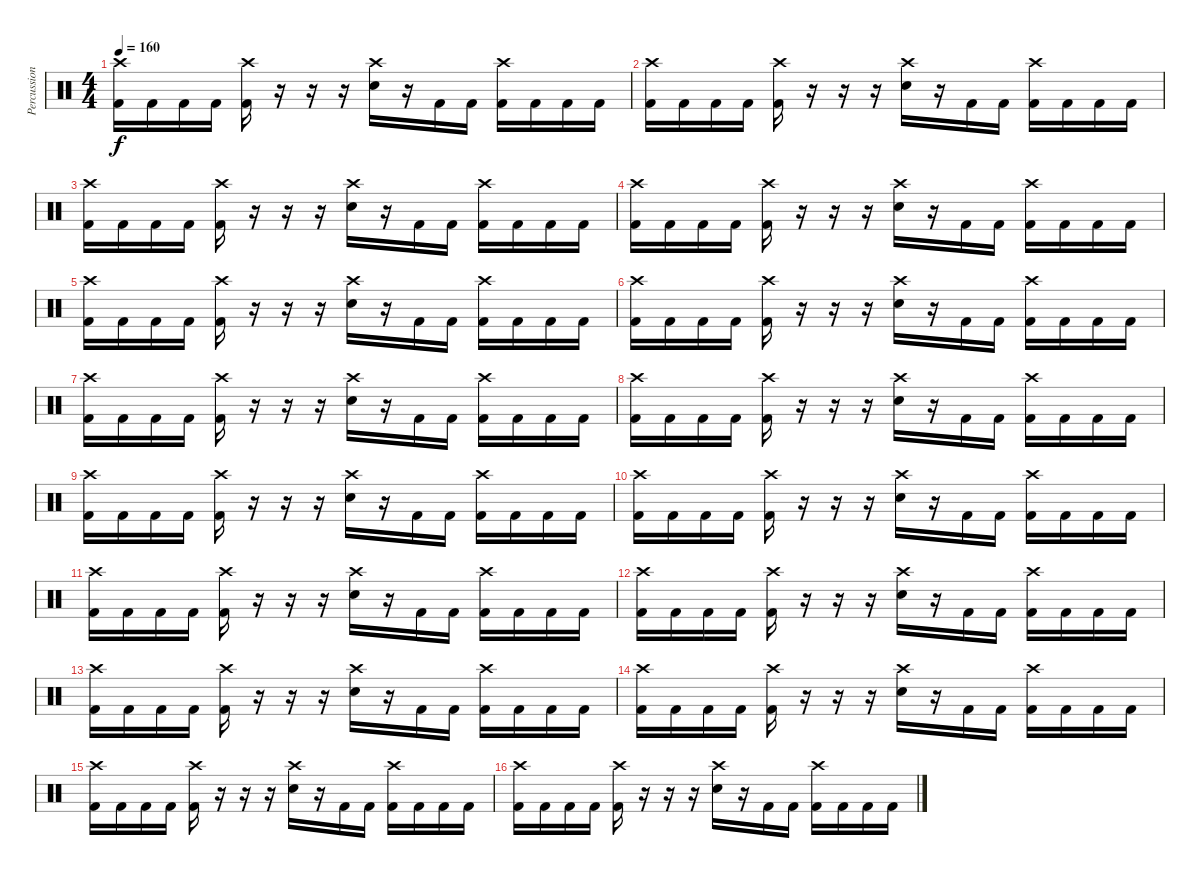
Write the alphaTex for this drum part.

\track ("Percussion" "Percussion") {instrument percussion}
\staff {score}
\articulation defaults
\ts (4 4)
\tempo 160
\clef neutral
\ks c
("Crash high (hit)" "Kick (hit) 2").16{dy f} "Kick (hit) 2".16 "Kick (hit) 2".16 "Kick (hit) 2".16 ("Crash high (hit)" "Kick (hit) 2").16 r.16 r.16 r.16 ("Crash high (hit)" "Electric Snare (hit)").16 r.16 "Kick (hit) 2".16 "Kick (hit) 2".16 ("Crash high (hit)" "Kick (hit) 2").16 "Kick (hit) 2".16 "Kick (hit) 2".16 "Kick (hit) 2".16 |
("Crash high (hit)" "Kick (hit) 2").16 "Kick (hit) 2".16 "Kick (hit) 2".16 "Kick (hit) 2".16 ("Crash high (hit)" "Kick (hit) 2").16 r.16 r.16 r.16 ("Crash high (hit)" "Electric Snare (hit)").16 r.16 "Kick (hit) 2".16 "Kick (hit) 2".16 ("Crash high (hit)" "Kick (hit) 2").16 "Kick (hit) 2".16 "Kick (hit) 2".16 "Kick (hit) 2".16 |
("Crash high (hit)" "Kick (hit) 2").16 "Kick (hit) 2".16 "Kick (hit) 2".16 "Kick (hit) 2".16 ("Crash high (hit)" "Kick (hit) 2").16 r.16 r.16 r.16 ("Crash high (hit)" "Electric Snare (hit)").16 r.16 "Kick (hit) 2".16 "Kick (hit) 2".16 ("Crash high (hit)" "Kick (hit) 2").16 "Kick (hit) 2".16 "Kick (hit) 2".16 "Kick (hit) 2".16 |
("Crash high (hit)" "Kick (hit) 2").16 "Kick (hit) 2".16 "Kick (hit) 2".16 "Kick (hit) 2".16 ("Crash high (hit)" "Kick (hit) 2").16 r.16 r.16 r.16 ("Crash high (hit)" "Electric Snare (hit)").16 r.16 "Kick (hit) 2".16 "Kick (hit) 2".16 ("Crash high (hit)" "Kick (hit) 2").16 "Kick (hit) 2".16 "Kick (hit) 2".16 "Kick (hit) 2".16 |
("Crash high (hit)" "Kick (hit) 2").16 "Kick (hit) 2".16 "Kick (hit) 2".16 "Kick (hit) 2".16 ("Crash high (hit)" "Kick (hit) 2").16 r.16 r.16 r.16 ("Crash high (hit)" "Electric Snare (hit)").16 r.16 "Kick (hit) 2".16 "Kick (hit) 2".16 ("Crash high (hit)" "Kick (hit) 2").16 "Kick (hit) 2".16 "Kick (hit) 2".16 "Kick (hit) 2".16 |
("Crash high (hit)" "Kick (hit) 2").16 "Kick (hit) 2".16 "Kick (hit) 2".16 "Kick (hit) 2".16 ("Crash high (hit)" "Kick (hit) 2").16 r.16 r.16 r.16 ("Crash high (hit)" "Electric Snare (hit)").16 r.16 "Kick (hit) 2".16 "Kick (hit) 2".16 ("Crash high (hit)" "Kick (hit) 2").16 "Kick (hit) 2".16 "Kick (hit) 2".16 "Kick (hit) 2".16 |
("Crash high (hit)" "Kick (hit) 2").16 "Kick (hit) 2".16 "Kick (hit) 2".16 "Kick (hit) 2".16 ("Crash high (hit)" "Kick (hit) 2").16 r.16 r.16 r.16 ("Crash high (hit)" "Electric Snare (hit)").16 r.16 "Kick (hit) 2".16 "Kick (hit) 2".16 ("Crash high (hit)" "Kick (hit) 2").16 "Kick (hit) 2".16 "Kick (hit) 2".16 "Kick (hit) 2".16 |
("Crash high (hit)" "Kick (hit) 2").16 "Kick (hit) 2".16 "Kick (hit) 2".16 "Kick (hit) 2".16 ("Crash high (hit)" "Kick (hit) 2").16 r.16 r.16 r.16 ("Crash high (hit)" "Electric Snare (hit)").16 r.16 "Kick (hit) 2".16 "Kick (hit) 2".16 ("Crash high (hit)" "Kick (hit) 2").16 "Kick (hit) 2".16 "Kick (hit) 2".16 "Kick (hit) 2".16 |
("Crash high (hit)" "Kick (hit) 2").16 "Kick (hit) 2".16 "Kick (hit) 2".16 "Kick (hit) 2".16 ("Crash high (hit)" "Kick (hit) 2").16 r.16 r.16 r.16 ("Crash high (hit)" "Electric Snare (hit)").16 r.16 "Kick (hit) 2".16 "Kick (hit) 2".16 ("Crash high (hit)" "Kick (hit) 2").16 "Kick (hit) 2".16 "Kick (hit) 2".16 "Kick (hit) 2".16 |
("Crash high (hit)" "Kick (hit) 2").16 "Kick (hit) 2".16 "Kick (hit) 2".16 "Kick (hit) 2".16 ("Crash high (hit)" "Kick (hit) 2").16 r.16 r.16 r.16 ("Crash high (hit)" "Electric Snare (hit)").16 r.16 "Kick (hit) 2".16 "Kick (hit) 2".16 ("Crash high (hit)" "Kick (hit) 2").16 "Kick (hit) 2".16 "Kick (hit) 2".16 "Kick (hit) 2".16 |
("Crash high (hit)" "Kick (hit) 2").16 "Kick (hit) 2".16 "Kick (hit) 2".16 "Kick (hit) 2".16 ("Crash high (hit)" "Kick (hit) 2").16 r.16 r.16 r.16 ("Crash high (hit)" "Electric Snare (hit)").16 r.16 "Kick (hit) 2".16 "Kick (hit) 2".16 ("Crash high (hit)" "Kick (hit) 2").16 "Kick (hit) 2".16 "Kick (hit) 2".16 "Kick (hit) 2".16 |
("Crash high (hit)" "Kick (hit) 2").16 "Kick (hit) 2".16 "Kick (hit) 2".16 "Kick (hit) 2".16 ("Crash high (hit)" "Kick (hit) 2").16 r.16 r.16 r.16 ("Crash high (hit)" "Electric Snare (hit)").16 r.16 "Kick (hit) 2".16 "Kick (hit) 2".16 ("Crash high (hit)" "Kick (hit) 2").16 "Kick (hit) 2".16 "Kick (hit) 2".16 "Kick (hit) 2".16 |
("Crash high (hit)" "Kick (hit) 2").16 "Kick (hit) 2".16 "Kick (hit) 2".16 "Kick (hit) 2".16 ("Crash high (hit)" "Kick (hit) 2").16 r.16 r.16 r.16 ("Crash high (hit)" "Electric Snare (hit)").16 r.16 "Kick (hit) 2".16 "Kick (hit) 2".16 ("Crash high (hit)" "Kick (hit) 2").16 "Kick (hit) 2".16 "Kick (hit) 2".16 "Kick (hit) 2".16 |
("Crash high (hit)" "Kick (hit) 2").16 "Kick (hit) 2".16 "Kick (hit) 2".16 "Kick (hit) 2".16 ("Crash high (hit)" "Kick (hit) 2").16 r.16 r.16 r.16 ("Crash high (hit)" "Electric Snare (hit)").16 r.16 "Kick (hit) 2".16 "Kick (hit) 2".16 ("Crash high (hit)" "Kick (hit) 2").16 "Kick (hit) 2".16 "Kick (hit) 2".16 "Kick (hit) 2".16 |
("Crash high (hit)" "Kick (hit) 2").16 "Kick (hit) 2".16 "Kick (hit) 2".16 "Kick (hit) 2".16 ("Crash high (hit)" "Kick (hit) 2").16 r.16 r.16 r.16 ("Crash high (hit)" "Electric Snare (hit)").16 r.16 "Kick (hit) 2".16 "Kick (hit) 2".16 ("Crash high (hit)" "Kick (hit) 2").16 "Kick (hit) 2".16 "Kick (hit) 2".16 "Kick (hit) 2".16 |
("Crash high (hit)" "Kick (hit) 2").16 "Kick (hit) 2".16 "Kick (hit) 2".16 "Kick (hit) 2".16 ("Crash high (hit)" "Kick (hit) 2").16 r.16 r.16 r.16 ("Crash high (hit)" "Electric Snare (hit)").16 r.16 "Kick (hit) 2".16 "Kick (hit) 2".16 ("Crash high (hit)" "Kick (hit) 2").16 "Kick (hit) 2".16 "Kick (hit) 2".16 "Kick (hit) 2".16
